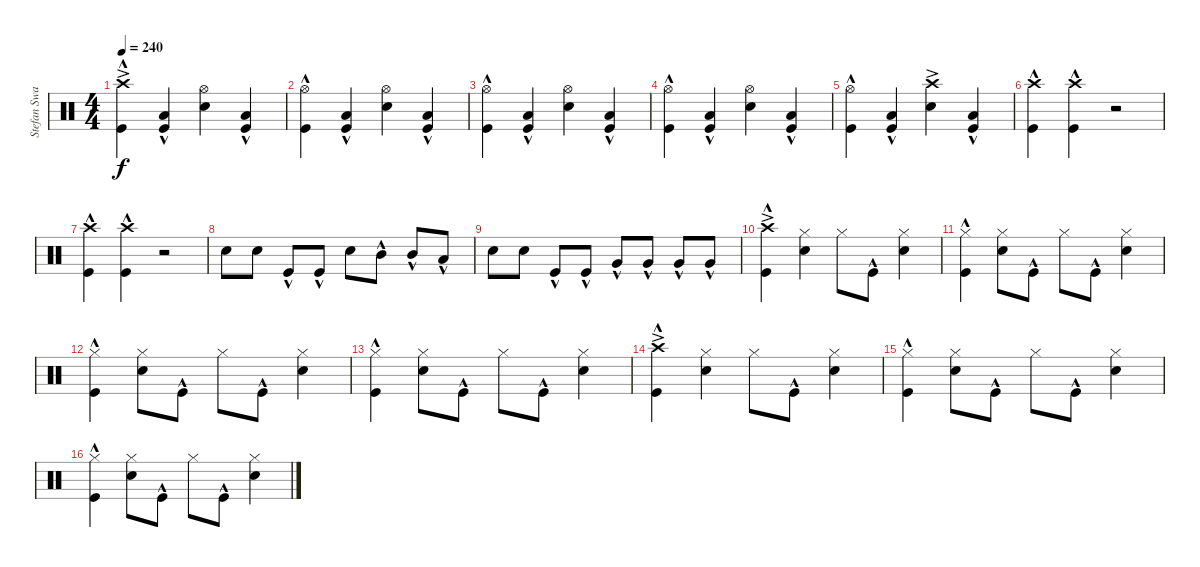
\track ("Stefan Swarztmann" "Stefan Swa") {instrument percussion}
\staff {score}
\articulation defaults
\ts (4 4)
\tempo 240
\clef neutral
\ks c
("Crash high (hit)"{ac} "Kick (hit)"{hac}).4{dy f} ("Low Floor Tom (hit)"{hac} "Kick (hit)"{hac}).4 ("Hi-Hat (open)" "Snare (hit) 2").4 ("Low Floor Tom (hit)"{hac} "Kick (hit)"{hac}).4 |
("Hi-Hat (open)" "Kick (hit)"{hac}).4 ("Low Floor Tom (hit)"{hac} "Kick (hit)"{hac}).4 ("Hi-Hat (open)" "Snare (hit) 2").4 ("Low Floor Tom (hit)"{hac} "Kick (hit)"{hac}).4 |
("Hi-Hat (open)" "Kick (hit)"{hac}).4 ("Low Floor Tom (hit)"{hac} "Kick (hit)"{hac}).4 ("Hi-Hat (open)" "Snare (hit) 2").4 ("Low Floor Tom (hit)"{hac} "Kick (hit)"{hac}).4 |
("Hi-Hat (open)" "Kick (hit)"{hac}).4 ("Low Floor Tom (hit)"{hac} "Kick (hit)"{hac}).4 ("Hi-Hat (open)" "Snare (hit) 2").4 ("Low Floor Tom (hit)"{hac} "Kick (hit)"{hac}).4 |
("Hi-Hat (open)" "Kick (hit)"{hac}).4 ("Low Floor Tom (hit)"{hac} "Kick (hit)"{hac}).4 ("Crash high (hit)"{ac} "Snare (hit) 2").4 ("Low Floor Tom (hit)"{hac} "Kick (hit)"{hac}).4 |
("Crash high (hit)" "Kick (hit)"{hac}).4 ("Crash high (hit)" "Kick (hit)"{hac}).4 r.2 |
("Crash high (hit)" "Kick (hit)"{hac}).4 ("Crash high (hit)" "Kick (hit)"{hac}).4 r.2 |
"Snare (hit) 2".8 "Snare (hit) 2".8 "Kick (hit)"{hac}.8 "Kick (hit)"{hac}.8 "Snare (hit) 2".8 "Mid Tom (hit)"{hac}.8 "Mid Tom (hit)"{hac}.8 "Low Tom (hit)"{hac}.8 |
"Snare (hit) 2".8 "Snare (hit) 2".8 "Kick (hit)"{hac}.8 "Kick (hit)"{hac}.8 "Very Low Tom (hit)"{hac}.8 "Very Low Tom (hit)"{hac}.8 "Very Low Tom (hit)"{hac}.8 "Very Low Tom (hit)"{hac}.8 |
("Crash high (hit)"{ac} "Kick (hit)"{hac}).4 ("Hi-Hat (closed)" "Snare (hit) 2").4 "Hi-Hat (closed)".8 "Kick (hit)"{hac}.8 ("Hi-Hat (closed)" "Snare (hit) 2").4 |
("Hi-Hat (closed)" "Kick (hit)"{hac}).4 ("Hi-Hat (closed)" "Snare (hit) 2").8 "Kick (hit)"{hac}.8 "Hi-Hat (closed)".8 "Kick (hit)"{hac}.8 ("Hi-Hat (closed)" "Snare (hit) 2").4 |
("Hi-Hat (closed)" "Kick (hit)"{hac}).4 ("Hi-Hat (closed)" "Snare (hit) 2").8 "Kick (hit)"{hac}.8 "Hi-Hat (closed)".8 "Kick (hit)"{hac}.8 ("Hi-Hat (closed)" "Snare (hit) 2").4 |
("Hi-Hat (closed)" "Kick (hit)"{hac}).4 ("Hi-Hat (closed)" "Snare (hit) 2").8 "Kick (hit)"{hac}.8 "Hi-Hat (closed)".8 "Kick (hit)"{hac}.8 ("Hi-Hat (closed)" "Snare (hit) 2").4 |
("Crash high (hit)"{ac} "Kick (hit)"{hac}).4 ("Hi-Hat (closed)" "Snare (hit) 2").4 "Hi-Hat (closed)".8 "Kick (hit)"{hac}.8 ("Hi-Hat (closed)" "Snare (hit) 2").4 |
("Hi-Hat (closed)" "Kick (hit)"{hac}).4 ("Hi-Hat (closed)" "Snare (hit) 2").8 "Kick (hit)"{hac}.8 "Hi-Hat (closed)".8 "Kick (hit)"{hac}.8 ("Hi-Hat (closed)" "Snare (hit) 2").4 |
("Hi-Hat (closed)" "Kick (hit)"{hac}).4 ("Hi-Hat (closed)" "Snare (hit) 2").8 "Kick (hit)"{hac}.8 "Hi-Hat (closed)".8 "Kick (hit)"{hac}.8 ("Hi-Hat (closed)" "Snare (hit) 2").4
